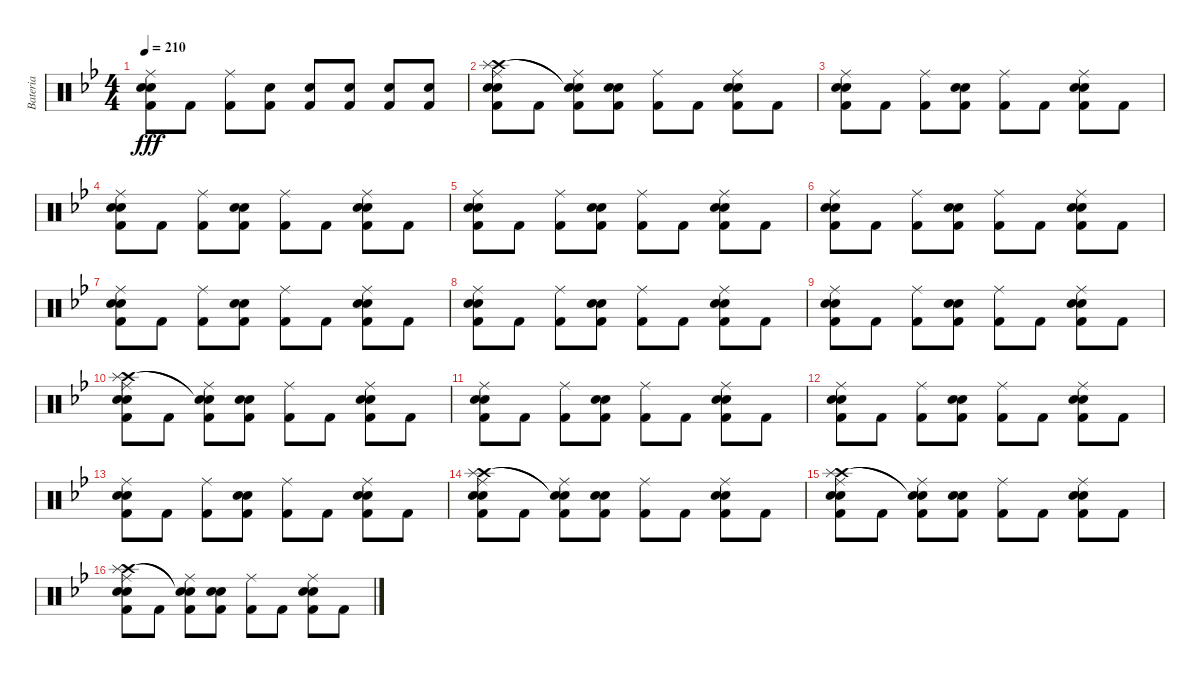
\track ("Bateria" "Bateria") {instrument percussion}
\staff {score}
\articulation defaults
\ts (4 4)
\tempo 210
\clef neutral
\ks gminor
("Ride (middle)" "Snare (hit) 2" "Kick (hit) 2" "Electric Snare (hit)").8{dy fff} "Kick (hit) 2".8 ("Ride (middle)" "Kick (hit) 2").8 ("Snare (hit) 2" "Kick (hit) 2").8 ("Snare (hit) 2" "Kick (hit) 2").8 ("Snare (hit) 2" "Kick (hit) 2").8 ("Snare (hit) 2" "Kick (hit) 2").8 ("Snare (hit) 2" "Kick (hit) 2").8 |
("Ride (middle)" "Crash high (hit)" "Splash (hit)" "Snare (hit) 2" "Electric Snare (hit)" "Kick (hit) 2").8 "Kick (hit) 2".8 ("Ride (middle)" "Snare (hit)"{t} "Snare (hit)"{t} "Kick (hit) 2").8 ("Snare (hit) 2" "Electric Snare (hit)" "Kick (hit) 2").8 ("Ride (middle)" "Kick (hit) 2").8 "Kick (hit) 2".8 ("Ride (middle)" "Snare (hit) 2" "Electric Snare (hit)" "Kick (hit) 2").8 "Kick (hit) 2".8 |
("Ride (middle)" "Snare (hit) 2" "Kick (hit) 2" "Electric Snare (hit)").8 "Kick (hit) 2".8 ("Ride (middle)" "Kick (hit) 2").8 ("Snare (hit) 2" "Kick (hit) 2" "Electric Snare (hit)").8 ("Ride (middle)" "Kick (hit) 2").8 "Kick (hit) 2".8 ("Ride (middle)" "Snare (hit) 2" "Kick (hit) 2" "Electric Snare (hit)").8 "Kick (hit) 2".8 |
("Ride (middle)" "Snare (hit) 2" "Kick (hit) 2" "Electric Snare (hit)").8 "Kick (hit) 2".8 ("Ride (middle)" "Kick (hit) 2").8 ("Snare (hit) 2" "Kick (hit) 2" "Electric Snare (hit)").8 ("Ride (middle)" "Kick (hit) 2").8 "Kick (hit) 2".8 ("Ride (middle)" "Snare (hit) 2" "Kick (hit) 2" "Electric Snare (hit)").8 "Kick (hit) 2".8 |
("Ride (middle)" "Snare (hit) 2" "Kick (hit) 2" "Electric Snare (hit)").8 "Kick (hit) 2".8 ("Ride (middle)" "Kick (hit) 2").8 ("Snare (hit) 2" "Kick (hit) 2" "Electric Snare (hit)").8 ("Ride (middle)" "Kick (hit) 2").8 "Kick (hit) 2".8 ("Ride (middle)" "Snare (hit) 2" "Kick (hit) 2" "Electric Snare (hit)").8 "Kick (hit) 2".8 |
("Ride (middle)" "Snare (hit) 2" "Kick (hit) 2" "Electric Snare (hit)").8 "Kick (hit) 2".8 ("Ride (middle)" "Kick (hit) 2").8 ("Snare (hit) 2" "Kick (hit) 2" "Electric Snare (hit)").8 ("Ride (middle)" "Kick (hit) 2").8 "Kick (hit) 2".8 ("Ride (middle)" "Snare (hit) 2" "Kick (hit) 2" "Electric Snare (hit)").8 "Kick (hit) 2".8 |
("Ride (middle)" "Snare (hit) 2" "Kick (hit) 2" "Electric Snare (hit)").8 "Kick (hit) 2".8 ("Ride (middle)" "Kick (hit) 2").8 ("Snare (hit) 2" "Kick (hit) 2" "Electric Snare (hit)").8 ("Ride (middle)" "Kick (hit) 2").8 "Kick (hit) 2".8 ("Ride (middle)" "Snare (hit) 2" "Kick (hit) 2" "Electric Snare (hit)").8 "Kick (hit) 2".8 |
("Ride (middle)" "Snare (hit) 2" "Kick (hit) 2" "Electric Snare (hit)").8 "Kick (hit) 2".8 ("Ride (middle)" "Kick (hit) 2").8 ("Snare (hit) 2" "Kick (hit) 2" "Electric Snare (hit)").8 ("Ride (middle)" "Kick (hit) 2").8 "Kick (hit) 2".8 ("Ride (middle)" "Snare (hit) 2" "Kick (hit) 2" "Electric Snare (hit)").8 "Kick (hit) 2".8 |
("Ride (middle)" "Snare (hit) 2" "Kick (hit) 2" "Electric Snare (hit)").8 "Kick (hit) 2".8 ("Ride (middle)" "Kick (hit) 2").8 ("Snare (hit) 2" "Kick (hit) 2" "Electric Snare (hit)").8 ("Ride (middle)" "Kick (hit) 2").8 "Kick (hit) 2".8 ("Ride (middle)" "Snare (hit) 2" "Kick (hit) 2" "Electric Snare (hit)").8 "Kick (hit) 2".8 |
("Ride (middle)" "Crash high (hit)" "Splash (hit)" "Snare (hit) 2" "Kick (hit) 2" "Electric Snare (hit)").8 "Kick (hit) 2".8 ("Ride (middle)" "Snare (hit)"{t} "Snare (hit)"{t} "Kick (hit) 2").8 ("Snare (hit) 2" "Kick (hit) 2" "Electric Snare (hit)").8 ("Ride (middle)" "Kick (hit) 2").8 "Kick (hit) 2".8 ("Ride (middle)" "Snare (hit) 2" "Kick (hit) 2" "Electric Snare (hit)").8 "Kick (hit) 2".8 |
("Ride (middle)" "Snare (hit) 2" "Kick (hit) 2" "Electric Snare (hit)").8 "Kick (hit) 2".8 ("Ride (middle)" "Kick (hit) 2").8 ("Snare (hit) 2" "Kick (hit) 2" "Electric Snare (hit)").8 ("Ride (middle)" "Kick (hit) 2").8 "Kick (hit) 2".8 ("Ride (middle)" "Snare (hit) 2" "Kick (hit) 2" "Electric Snare (hit)").8 "Kick (hit) 2".8 |
("Ride (middle)" "Snare (hit) 2" "Kick (hit) 2" "Electric Snare (hit)").8 "Kick (hit) 2".8 ("Ride (middle)" "Kick (hit) 2").8 ("Snare (hit) 2" "Kick (hit) 2" "Electric Snare (hit)").8 ("Ride (middle)" "Kick (hit) 2").8 "Kick (hit) 2".8 ("Ride (middle)" "Snare (hit) 2" "Kick (hit) 2" "Electric Snare (hit)").8 "Kick (hit) 2".8 |
("Ride (middle)" "Snare (hit) 2" "Kick (hit) 2" "Electric Snare (hit)").8 "Kick (hit) 2".8 ("Ride (middle)" "Kick (hit) 2").8 ("Snare (hit) 2" "Kick (hit) 2" "Electric Snare (hit)").8 ("Ride (middle)" "Kick (hit) 2").8 "Kick (hit) 2".8 ("Ride (middle)" "Snare (hit) 2" "Kick (hit) 2" "Electric Snare (hit)").8 "Kick (hit) 2".8 |
("Ride (middle)" "Crash high (hit)" "Splash (hit)" "Snare (hit) 2" "Kick (hit) 2" "Electric Snare (hit)").8 "Kick (hit) 2".8 ("Ride (middle)" "Snare (hit)"{t} "Snare (hit)"{t} "Kick (hit) 2").8 ("Snare (hit) 2" "Kick (hit) 2" "Electric Snare (hit)").8 ("Ride (middle)" "Kick (hit) 2").8 "Kick (hit) 2".8 ("Ride (middle)" "Snare (hit) 2" "Kick (hit) 2" "Electric Snare (hit)").8 "Kick (hit) 2".8 |
("Ride (middle)" "Crash high (hit)" "Splash (hit)" "Snare (hit) 2" "Kick (hit) 2" "Electric Snare (hit)").8 "Kick (hit) 2".8 ("Ride (middle)" "Snare (hit)"{t} "Snare (hit)"{t} "Kick (hit) 2").8 ("Snare (hit) 2" "Kick (hit) 2" "Electric Snare (hit)").8 ("Ride (middle)" "Kick (hit) 2").8 "Kick (hit) 2".8 ("Ride (middle)" "Snare (hit) 2" "Kick (hit) 2" "Electric Snare (hit)").8 "Kick (hit) 2".8 |
("Ride (middle)" "Crash high (hit)" "Splash (hit)" "Snare (hit) 2" "Kick (hit) 2" "Electric Snare (hit)").8 "Kick (hit) 2".8 ("Ride (middle)" "Snare (hit)"{t} "Snare (hit)"{t} "Kick (hit) 2").8 ("Snare (hit) 2" "Kick (hit) 2" "Electric Snare (hit)").8 ("Ride (middle)" "Kick (hit) 2").8 "Kick (hit) 2".8 ("Ride (middle)" "Snare (hit) 2" "Kick (hit) 2" "Electric Snare (hit)").8 "Kick (hit) 2".8
